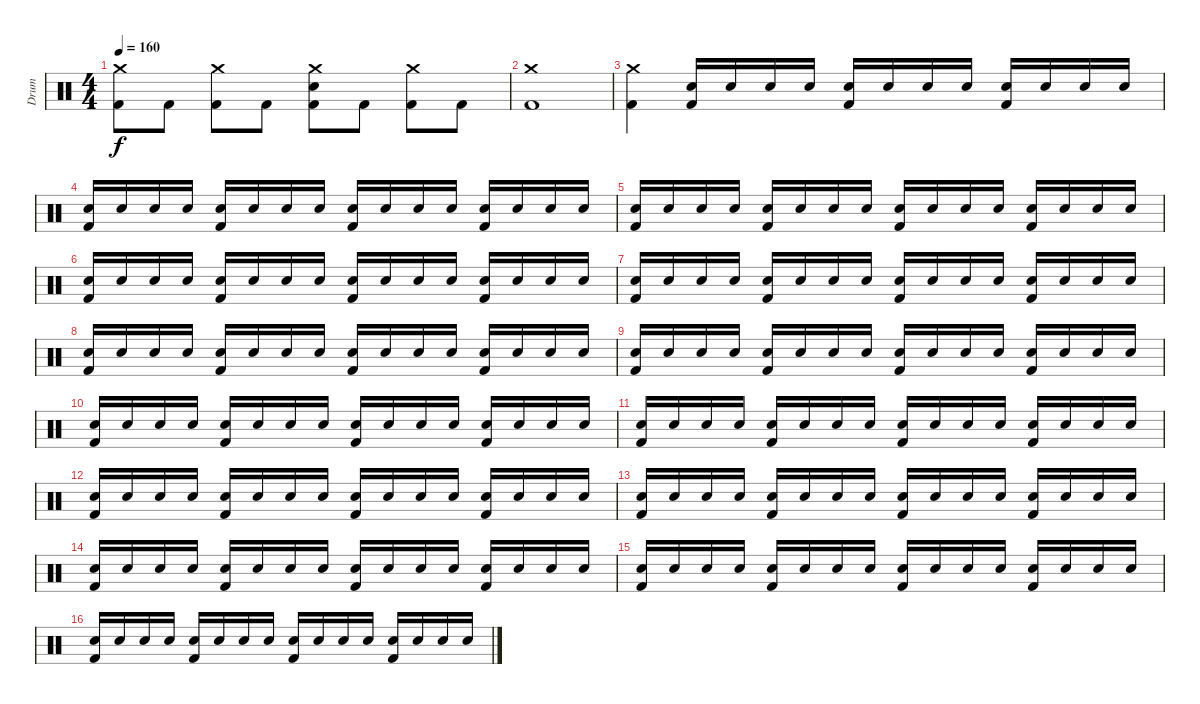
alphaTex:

\track ("Drum" "Drum") {instrument percussion}
\staff {score}
\articulation defaults
\ts (4 4)
\tempo 160
\clef neutral
\ks c
("Crash medium (hit)" "Kick (hit) 2").8{dy f} "Kick (hit) 2".8 ("Crash medium (hit)" "Kick (hit) 2").8 "Kick (hit) 2".8 ("Crash medium (hit)" "Electric Snare (hit)" "Kick (hit) 2").8 "Kick (hit) 2".8 ("Crash medium (hit)" "Kick (hit) 2").8 "Kick (hit) 2".8 |
("Crash medium (hit)" "Kick (hit) 2").1 |
("Crash medium (hit)" "Kick (hit) 2").4 ("Electric Snare (hit)" "Kick (hit) 2").16 "Electric Snare (hit)".16 "Electric Snare (hit)".16 "Electric Snare (hit)".16 ("Electric Snare (hit)" "Kick (hit) 2").16 "Electric Snare (hit)".16 "Electric Snare (hit)".16 "Electric Snare (hit)".16 ("Electric Snare (hit)" "Kick (hit) 2").16 "Electric Snare (hit)".16 "Electric Snare (hit)".16 "Electric Snare (hit)".16 |
("Electric Snare (hit)" "Kick (hit) 2").16 "Electric Snare (hit)".16 "Electric Snare (hit)".16 "Electric Snare (hit)".16 ("Electric Snare (hit)" "Kick (hit) 2").16 "Electric Snare (hit)".16 "Electric Snare (hit)".16 "Electric Snare (hit)".16 ("Electric Snare (hit)" "Kick (hit) 2").16 "Electric Snare (hit)".16 "Electric Snare (hit)".16 "Electric Snare (hit)".16 ("Electric Snare (hit)" "Kick (hit) 2").16 "Electric Snare (hit)".16 "Electric Snare (hit)".16 "Electric Snare (hit)".16 |
("Electric Snare (hit)" "Kick (hit) 2").16 "Electric Snare (hit)".16 "Electric Snare (hit)".16 "Electric Snare (hit)".16 ("Electric Snare (hit)" "Kick (hit) 2").16 "Electric Snare (hit)".16 "Electric Snare (hit)".16 "Electric Snare (hit)".16 ("Electric Snare (hit)" "Kick (hit) 2").16 "Electric Snare (hit)".16 "Electric Snare (hit)".16 "Electric Snare (hit)".16 ("Electric Snare (hit)" "Kick (hit) 2").16 "Electric Snare (hit)".16 "Electric Snare (hit)".16 "Electric Snare (hit)".16 |
("Electric Snare (hit)" "Kick (hit) 2").16 "Electric Snare (hit)".16 "Electric Snare (hit)".16 "Electric Snare (hit)".16 ("Electric Snare (hit)" "Kick (hit) 2").16 "Electric Snare (hit)".16 "Electric Snare (hit)".16 "Electric Snare (hit)".16 ("Electric Snare (hit)" "Kick (hit) 2").16 "Electric Snare (hit)".16 "Electric Snare (hit)".16 "Electric Snare (hit)".16 ("Electric Snare (hit)" "Kick (hit) 2").16 "Electric Snare (hit)".16 "Electric Snare (hit)".16 "Electric Snare (hit)".16 |
("Electric Snare (hit)" "Kick (hit) 2").16 "Electric Snare (hit)".16 "Electric Snare (hit)".16 "Electric Snare (hit)".16 ("Electric Snare (hit)" "Kick (hit) 2").16 "Electric Snare (hit)".16 "Electric Snare (hit)".16 "Electric Snare (hit)".16 ("Electric Snare (hit)" "Kick (hit) 2").16 "Electric Snare (hit)".16 "Electric Snare (hit)".16 "Electric Snare (hit)".16 ("Electric Snare (hit)" "Kick (hit) 2").16 "Electric Snare (hit)".16 "Electric Snare (hit)".16 "Electric Snare (hit)".16 |
("Electric Snare (hit)" "Kick (hit) 2").16 "Electric Snare (hit)".16 "Electric Snare (hit)".16 "Electric Snare (hit)".16 ("Electric Snare (hit)" "Kick (hit) 2").16 "Electric Snare (hit)".16 "Electric Snare (hit)".16 "Electric Snare (hit)".16 ("Electric Snare (hit)" "Kick (hit) 2").16 "Electric Snare (hit)".16 "Electric Snare (hit)".16 "Electric Snare (hit)".16 ("Electric Snare (hit)" "Kick (hit) 2").16 "Electric Snare (hit)".16 "Electric Snare (hit)".16 "Electric Snare (hit)".16 |
("Electric Snare (hit)" "Kick (hit) 2").16 "Electric Snare (hit)".16 "Electric Snare (hit)".16 "Electric Snare (hit)".16 ("Electric Snare (hit)" "Kick (hit) 2").16 "Electric Snare (hit)".16 "Electric Snare (hit)".16 "Electric Snare (hit)".16 ("Electric Snare (hit)" "Kick (hit) 2").16 "Electric Snare (hit)".16 "Electric Snare (hit)".16 "Electric Snare (hit)".16 ("Electric Snare (hit)" "Kick (hit) 2").16 "Electric Snare (hit)".16 "Electric Snare (hit)".16 "Electric Snare (hit)".16 |
("Electric Snare (hit)" "Kick (hit) 2").16 "Electric Snare (hit)".16 "Electric Snare (hit)".16 "Electric Snare (hit)".16 ("Electric Snare (hit)" "Kick (hit) 2").16 "Electric Snare (hit)".16 "Electric Snare (hit)".16 "Electric Snare (hit)".16 ("Electric Snare (hit)" "Kick (hit) 2").16 "Electric Snare (hit)".16 "Electric Snare (hit)".16 "Electric Snare (hit)".16 ("Electric Snare (hit)" "Kick (hit) 2").16 "Electric Snare (hit)".16 "Electric Snare (hit)".16 "Electric Snare (hit)".16 |
("Electric Snare (hit)" "Kick (hit) 2").16 "Electric Snare (hit)".16 "Electric Snare (hit)".16 "Electric Snare (hit)".16 ("Electric Snare (hit)" "Kick (hit) 2").16 "Electric Snare (hit)".16 "Electric Snare (hit)".16 "Electric Snare (hit)".16 ("Electric Snare (hit)" "Kick (hit) 2").16 "Electric Snare (hit)".16 "Electric Snare (hit)".16 "Electric Snare (hit)".16 ("Electric Snare (hit)" "Kick (hit) 2").16 "Electric Snare (hit)".16 "Electric Snare (hit)".16 "Electric Snare (hit)".16 |
("Electric Snare (hit)" "Kick (hit) 2").16 "Electric Snare (hit)".16 "Electric Snare (hit)".16 "Electric Snare (hit)".16 ("Electric Snare (hit)" "Kick (hit) 2").16 "Electric Snare (hit)".16 "Electric Snare (hit)".16 "Electric Snare (hit)".16 ("Electric Snare (hit)" "Kick (hit) 2").16 "Electric Snare (hit)".16 "Electric Snare (hit)".16 "Electric Snare (hit)".16 ("Electric Snare (hit)" "Kick (hit) 2").16 "Electric Snare (hit)".16 "Electric Snare (hit)".16 "Electric Snare (hit)".16 |
("Electric Snare (hit)" "Kick (hit) 2").16 "Electric Snare (hit)".16 "Electric Snare (hit)".16 "Electric Snare (hit)".16 ("Electric Snare (hit)" "Kick (hit) 2").16 "Electric Snare (hit)".16 "Electric Snare (hit)".16 "Electric Snare (hit)".16 ("Electric Snare (hit)" "Kick (hit) 2").16 "Electric Snare (hit)".16 "Electric Snare (hit)".16 "Electric Snare (hit)".16 ("Electric Snare (hit)" "Kick (hit) 2").16 "Electric Snare (hit)".16 "Electric Snare (hit)".16 "Electric Snare (hit)".16 |
("Electric Snare (hit)" "Kick (hit) 2").16 "Electric Snare (hit)".16 "Electric Snare (hit)".16 "Electric Snare (hit)".16 ("Electric Snare (hit)" "Kick (hit) 2").16 "Electric Snare (hit)".16 "Electric Snare (hit)".16 "Electric Snare (hit)".16 ("Electric Snare (hit)" "Kick (hit) 2").16 "Electric Snare (hit)".16 "Electric Snare (hit)".16 "Electric Snare (hit)".16 ("Electric Snare (hit)" "Kick (hit) 2").16 "Electric Snare (hit)".16 "Electric Snare (hit)".16 "Electric Snare (hit)".16 |
("Electric Snare (hit)" "Kick (hit) 2").16 "Electric Snare (hit)".16 "Electric Snare (hit)".16 "Electric Snare (hit)".16 ("Electric Snare (hit)" "Kick (hit) 2").16 "Electric Snare (hit)".16 "Electric Snare (hit)".16 "Electric Snare (hit)".16 ("Electric Snare (hit)" "Kick (hit) 2").16 "Electric Snare (hit)".16 "Electric Snare (hit)".16 "Electric Snare (hit)".16 ("Electric Snare (hit)" "Kick (hit) 2").16 "Electric Snare (hit)".16 "Electric Snare (hit)".16 "Electric Snare (hit)".16 |
("Electric Snare (hit)" "Kick (hit) 2").16 "Electric Snare (hit)".16 "Electric Snare (hit)".16 "Electric Snare (hit)".16 ("Electric Snare (hit)" "Kick (hit) 2").16 "Electric Snare (hit)".16 "Electric Snare (hit)".16 "Electric Snare (hit)".16 ("Electric Snare (hit)" "Kick (hit) 2").16 "Electric Snare (hit)".16 "Electric Snare (hit)".16 "Electric Snare (hit)".16 ("Electric Snare (hit)" "Kick (hit) 2").16 "Electric Snare (hit)".16 "Electric Snare (hit)".16 "Electric Snare (hit)".16
